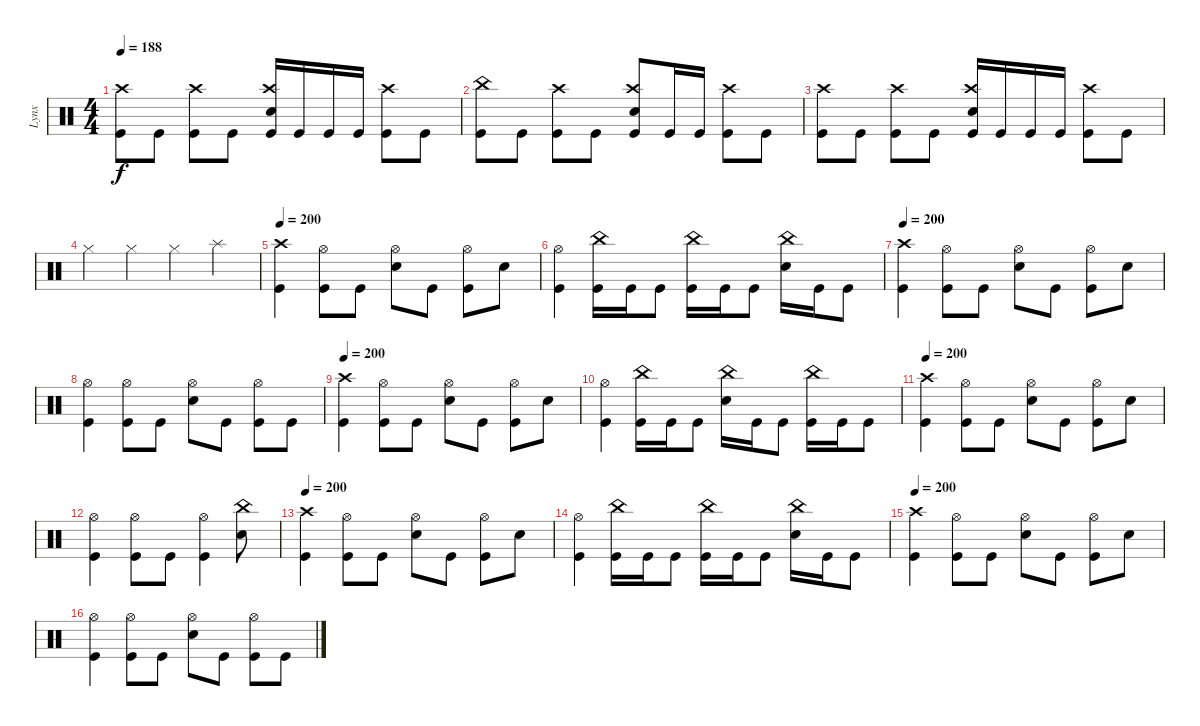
\track ("Lynx" "Lynx") {instrument percussion}
\staff {score}
\articulation defaults
\ts (4 4)
\tempo 188
\clef neutral
\ks c
("Kick (hit)" "Crash high (hit)").8{dy f} "Kick (hit)".8 ("Kick (hit)" "Crash high (hit)").8 "Kick (hit)".8 ("Kick (hit)" "Electric Snare (hit)" "Crash high (hit)").16 "Kick (hit)".16 "Kick (hit)".16 "Kick (hit)".16 ("Kick (hit)" "Crash high (hit)").8 "Kick (hit)".8 |
("Kick (hit)" "China (hit)").8 "Kick (hit)".8 ("Kick (hit)" "Crash high (hit)").8 "Kick (hit)".8 ("Kick (hit)" "Electric Snare (hit)" "Crash high (hit)").8 "Kick (hit)".16 "Kick (hit)".16 ("Kick (hit)" "Crash high (hit)").8 "Kick (hit)".8 |
("Kick (hit)" "Crash high (hit)").8 "Kick (hit)".8 ("Kick (hit)" "Crash high (hit)").8 "Kick (hit)".8 ("Kick (hit)" "Electric Snare (hit)" "Crash high (hit)").16 "Kick (hit)".16 "Kick (hit)".16 "Kick (hit)".16 ("Kick (hit)" "Crash high (hit)").8 "Kick (hit)".8 |
"Hi-Hat (closed)".4 "Hi-Hat (closed)".4 "Hi-Hat (closed)".4 "Splash (hit)".4 |
\tempo 200
("Kick (hit)" "Crash high (hit)").4 ("Kick (hit)" "Hi-Hat (open)").8 "Kick (hit)".8 ("Electric Snare (hit)" "Hi-Hat (open)").8 "Kick (hit)".8 ("Kick (hit)" "Hi-Hat (open)").8 "Electric Snare (hit)".8 |
("Kick (hit)" "Hi-Hat (open)").4 ("Kick (hit)" "China (hit)").16 "Kick (hit)".16 "Kick (hit)".8 ("Kick (hit)" "China (hit)").16 "Kick (hit)".16 "Kick (hit)".8 ("Electric Snare (hit)" "China (hit)").16 "Kick (hit)".16 "Kick (hit)".8 |
\tempo 200
("Kick (hit)" "Crash high (hit)").4 ("Kick (hit)" "Hi-Hat (open)").8 "Kick (hit)".8 ("Electric Snare (hit)" "Hi-Hat (open)").8 "Kick (hit)".8 ("Kick (hit)" "Hi-Hat (open)").8 "Electric Snare (hit)".8 |
("Kick (hit)" "Hi-Hat (open)").4 ("Kick (hit)" "Hi-Hat (open)").8 "Kick (hit)".8 ("Electric Snare (hit)" "Hi-Hat (open)").8 "Kick (hit)".8 ("Kick (hit)" "Hi-Hat (open)").8 "Kick (hit)".8 |
\tempo 200
("Kick (hit)" "Crash high (hit)").4 ("Kick (hit)" "Hi-Hat (open)").8 "Kick (hit)".8 ("Electric Snare (hit)" "Hi-Hat (open)").8 "Kick (hit)".8 ("Kick (hit)" "Hi-Hat (open)").8 "Electric Snare (hit)".8 |
("Kick (hit)" "Hi-Hat (open)").4 ("Kick (hit)" "China (hit)").16 "Kick (hit)".16 "Kick (hit)".8 ("Electric Snare (hit)" "China (hit)").16 "Kick (hit)".16 "Kick (hit)".8 ("Kick (hit)" "China (hit)").16 "Kick (hit)".16 "Kick (hit)".8 |
\tempo 200
("Kick (hit)" "Crash high (hit)").4 ("Kick (hit)" "Hi-Hat (open)").8 "Kick (hit)".8 ("Electric Snare (hit)" "Hi-Hat (open)").8 "Kick (hit)".8 ("Kick (hit)" "Hi-Hat (open)").8 "Electric Snare (hit)".8 |
("Kick (hit)" "Hi-Hat (open)").4 ("Kick (hit)" "Hi-Hat (open)").8 "Kick (hit)".8 ("Kick (hit)" "Hi-Hat (open)").4 ("China (hit)" "Electric Snare (hit)").8 |
\tempo 200
("Kick (hit)" "Crash high (hit)").4 ("Kick (hit)" "Hi-Hat (open)").8 "Kick (hit)".8 ("Electric Snare (hit)" "Hi-Hat (open)").8 "Kick (hit)".8 ("Kick (hit)" "Hi-Hat (open)").8 "Electric Snare (hit)".8 |
("Kick (hit)" "Hi-Hat (open)").4 ("Kick (hit)" "China (hit)").16 "Kick (hit)".16 "Kick (hit)".8 ("Kick (hit)" "China (hit)").16 "Kick (hit)".16 "Kick (hit)".8 ("Electric Snare (hit)" "China (hit)").16 "Kick (hit)".16 "Kick (hit)".8 |
\tempo 200
("Kick (hit)" "Crash high (hit)").4 ("Kick (hit)" "Hi-Hat (open)").8 "Kick (hit)".8 ("Electric Snare (hit)" "Hi-Hat (open)").8 "Kick (hit)".8 ("Kick (hit)" "Hi-Hat (open)").8 "Electric Snare (hit)".8 |
("Kick (hit)" "Hi-Hat (open)").4 ("Kick (hit)" "Hi-Hat (open)").8 "Kick (hit)".8 ("Electric Snare (hit)" "Hi-Hat (open)").8 "Kick (hit)".8 ("Kick (hit)" "Hi-Hat (open)").8 "Kick (hit)".8
